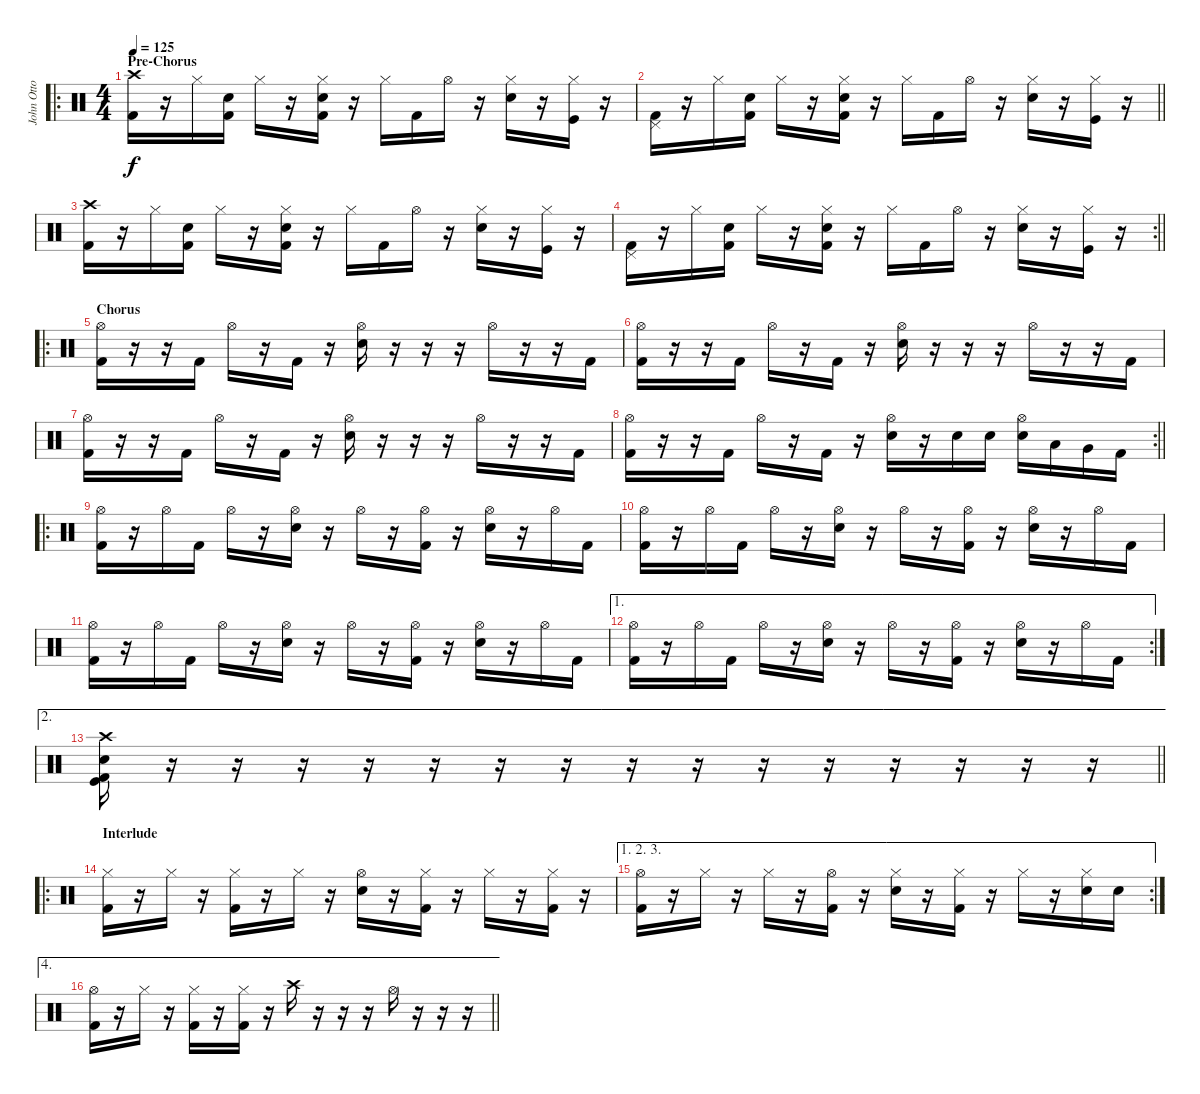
\track ("John Otto" "John Otto") {instrument percussion}
\staff {score}
\articulation defaults
\ro
\ts (4 4)
\section ("" "Pre-Chorus")
\tempo 125
\clef neutral
\ks c
("Crash high (hit)" "Kick (hit) 2").16{dy f} r.16 "Hi-Hat (closed)".16 ("Electric Snare (hit)" "Kick (hit) 2").16 "Hi-Hat (closed)".16 r.16 ("Hi-Hat (closed)" "Snare (hit) 2" "Kick (hit) 2").16 r.16 "Hi-Hat (closed)".16 "Kick (hit) 2".16 "Hi-Hat (open)".16 r.16 ("Hi-Hat (closed)" "Snare (hit) 2").16 r.16 ("Hi-Hat (closed)" "Kick (hit)").16 r.16 |
\barLineRight lightlight
("Pedal Hi-Hat (hit)" "Kick (hit) 2").16 r.16 "Hi-Hat (closed)".16 ("Electric Snare (hit)" "Kick (hit) 2").16 "Hi-Hat (closed)".16 r.16 ("Hi-Hat (closed)" "Snare (hit) 2" "Kick (hit) 2").16 r.16 "Hi-Hat (closed)".16 "Kick (hit) 2".16 "Hi-Hat (open)".16 r.16 ("Hi-Hat (closed)" "Snare (hit) 2").16 r.16 ("Hi-Hat (closed)" "Kick (hit)").16 r.16 |
("Crash high (hit)" "Kick (hit) 2").16 r.16 "Hi-Hat (closed)".16 ("Electric Snare (hit)" "Kick (hit) 2").16 "Hi-Hat (closed)".16 r.16 ("Hi-Hat (closed)" "Snare (hit) 2" "Kick (hit) 2").16 r.16 "Hi-Hat (closed)".16 "Kick (hit) 2".16 "Hi-Hat (open)".16 r.16 ("Hi-Hat (closed)" "Snare (hit) 2").16 r.16 ("Hi-Hat (closed)" "Kick (hit)").16 r.16 |
\rc 2
\barLineRight lightlight
("Pedal Hi-Hat (hit)" "Kick (hit) 2").16 r.16 "Hi-Hat (closed)".16 ("Electric Snare (hit)" "Kick (hit) 2").16 "Hi-Hat (closed)".16 r.16 ("Hi-Hat (closed)" "Snare (hit) 2" "Kick (hit) 2").16 r.16 "Hi-Hat (closed)".16 "Kick (hit) 2".16 "Hi-Hat (open)".16 r.16 ("Hi-Hat (closed)" "Snare (hit) 2").16 r.16 ("Hi-Hat (closed)" "Kick (hit)").16 r.16 |
\ro
\section ("" "Chorus")
("Hi-Hat (open)" "Kick (hit) 2").16 r.16 r.16 "Kick (hit) 2".16 "Hi-Hat (open)".16 r.16 "Kick (hit) 2".16 r.16 ("Hi-Hat (open)" "Snare (hit) 2").16 r.16 r.16 r.16 "Hi-Hat (open)".16 r.16 r.16 "Kick (hit) 2".16 |
("Hi-Hat (open)" "Kick (hit) 2").16 r.16 r.16 "Kick (hit) 2".16 "Hi-Hat (open)".16 r.16 "Kick (hit) 2".16 r.16 ("Hi-Hat (open)" "Snare (hit) 2").16 r.16 r.16 r.16 "Hi-Hat (open)".16 r.16 r.16 "Kick (hit) 2".16 |
("Hi-Hat (open)" "Kick (hit) 2").16 r.16 r.16 "Kick (hit) 2".16 "Hi-Hat (open)".16 r.16 "Kick (hit) 2".16 r.16 ("Hi-Hat (open)" "Snare (hit) 2").16 r.16 r.16 r.16 "Hi-Hat (open)".16 r.16 r.16 "Kick (hit) 2".16 |
\rc 2
\barLineRight lightlight
("Hi-Hat (open)" "Kick (hit) 2").16 r.16 r.16 "Kick (hit) 2".16 "Hi-Hat (open)".16 r.16 "Kick (hit) 2".16 r.16 ("Hi-Hat (open)" "Snare (hit) 2").16 r.16 "Snare (hit) 2".16 "Snare (hit) 2".16 ("Hi-Hat (open)" "Snare (hit) 2").16 "Low Tom (hit)".16 "Very Low Tom (hit)".16 "Kick (hit) 2".16 |
\ro
("Hi-Hat (open)" "Kick (hit) 2").16 r.16 "Hi-Hat (open)".16 "Kick (hit) 2".16 "Hi-Hat (open)".16 r.16 ("Hi-Hat (open)" "Snare (hit) 2").16 r.16 "Hi-Hat (open)".16 r.16 ("Hi-Hat (open)" "Kick (hit) 2").16 r.16 ("Hi-Hat (open)" "Snare (hit) 2").16 r.16 "Hi-Hat (open)".16 "Kick (hit) 2".16 |
("Hi-Hat (open)" "Kick (hit) 2").16 r.16 "Hi-Hat (open)".16 "Kick (hit) 2".16 "Hi-Hat (open)".16 r.16 ("Hi-Hat (open)" "Snare (hit) 2").16 r.16 "Hi-Hat (open)".16 r.16 ("Hi-Hat (open)" "Kick (hit) 2").16 r.16 ("Hi-Hat (open)" "Snare (hit) 2").16 r.16 "Hi-Hat (open)".16 "Kick (hit) 2".16 |
("Hi-Hat (open)" "Kick (hit) 2").16 r.16 "Hi-Hat (open)".16 "Kick (hit) 2".16 "Hi-Hat (open)".16 r.16 ("Hi-Hat (open)" "Snare (hit) 2").16 r.16 "Hi-Hat (open)".16 r.16 ("Hi-Hat (open)" "Kick (hit) 2").16 r.16 ("Hi-Hat (open)" "Snare (hit) 2").16 r.16 "Hi-Hat (open)".16 "Kick (hit) 2".16 |
\ae 1
\rc 2
("Hi-Hat (open)" "Kick (hit) 2").16 r.16 "Hi-Hat (open)".16 "Kick (hit) 2".16 "Hi-Hat (open)".16 r.16 ("Hi-Hat (open)" "Snare (hit) 2").16 r.16 "Hi-Hat (open)".16 r.16 ("Hi-Hat (open)" "Kick (hit) 2").16 r.16 ("Hi-Hat (open)" "Snare (hit) 2").16 r.16 "Hi-Hat (open)".16 "Kick (hit) 2".16 |
\ae 2
\barLineRight lightlight
("Crash high (hit)" "Electric Snare (hit)" "Kick (hit) 2" "Kick (hit)").16 r.16 r.16 r.16 r.16 r.16 r.16 r.16 r.16 r.16 r.16 r.16 r.16 r.16 r.16 r.16 |
\ro
\section ("" "Interlude")
("Hi-Hat (closed)" "Kick (hit) 2").16 r.16 "Hi-Hat (closed)".16 r.16 ("Hi-Hat (closed)" "Kick (hit) 2").16 r.16 "Hi-Hat (closed)".16 r.16 ("Hi-Hat (open)" "Snare (hit) 2").16 r.16 ("Hi-Hat (closed)" "Kick (hit) 2").16 r.16 "Hi-Hat (closed)".16 r.16 ("Hi-Hat (closed)" "Kick (hit) 2").16 r.16 |
\ae (1 2 3)
\rc 2
("Hi-Hat (open)" "Kick (hit) 2").16 r.16 "Hi-Hat (closed)".16 r.16 "Hi-Hat (closed)".16 r.16 ("Hi-Hat (open)" "Kick (hit) 2").16 r.16 ("Hi-Hat (closed)" "Snare (hit) 2").16 r.16 ("Hi-Hat (closed)" "Kick (hit) 2").16 r.16 "Hi-Hat (closed)".16 r.16 ("Hi-Hat (closed)" "Electric Snare (hit)").16 "Electric Snare (hit)".16 |
\ae 4
\barLineRight lightlight
("Hi-Hat (open)" "Kick (hit) 2").16 r.16 "Hi-Hat (closed)".16 r.16 ("Hi-Hat (closed)" "Kick (hit) 2").16 r.16 ("Hi-Hat (closed)" "Kick (hit) 2").16 r.16 "Crash high (hit)".16 r.16 r.16 r.16 "Hi-Hat (open)".16 r.16 r.16 r.16
